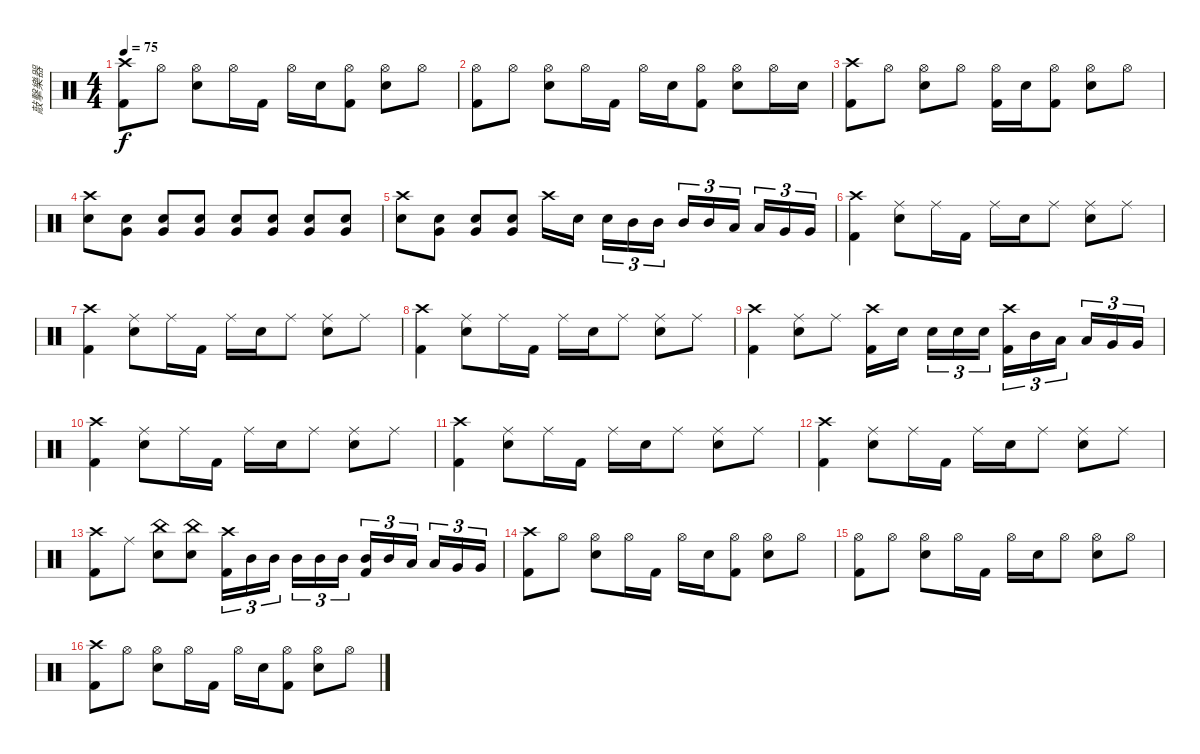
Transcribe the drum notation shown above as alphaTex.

\track ("敲擊樂器" "敲擊樂器") {instrument percussion}
\staff {score}
\articulation defaults
\ts (4 4)
\tempo 75
\clef neutral
\ks c
("Crash high (hit)" "Kick (hit) 2").8{dy f} "Hi-Hat (open)".8 ("Hi-Hat (open)" "Snare (hit) 2").8 "Hi-Hat (open)".16 "Kick (hit) 2".16 "Hi-Hat (open)".16 "Snare (hit) 2".16 ("Hi-Hat (open)" "Kick (hit) 2").8 ("Hi-Hat (open)" "Snare (hit) 2").8 "Hi-Hat (open)".8 |
("Hi-Hat (open)" "Kick (hit) 2").8 "Hi-Hat (open)".8 ("Hi-Hat (open)" "Snare (hit) 2").8 "Hi-Hat (open)".16 "Kick (hit) 2".16 "Hi-Hat (open)".16 "Snare (hit) 2".16 ("Hi-Hat (open)" "Kick (hit) 2").8 ("Hi-Hat (open)" "Snare (hit) 2").8 "Hi-Hat (open)".16 "Snare (hit) 2".16 |
("Crash high (hit)" "Kick (hit) 2").8 "Hi-Hat (open)".8 ("Hi-Hat (open)" "Snare (hit) 2").8 "Hi-Hat (open)".8 ("Hi-Hat (open)" "Kick (hit) 2").16 "Snare (hit) 2".16 ("Hi-Hat (open)" "Kick (hit) 2").8 ("Hi-Hat (open)" "Snare (hit) 2").8 "Hi-Hat (open)".8 |
("Crash high (hit)" "Snare (hit) 2").8 ("Snare (hit) 2" "Very Low Tom (hit)").8 ("Snare (hit) 2" "Very Low Tom (hit)").8 ("Snare (hit) 2" "Very Low Tom (hit)").8 ("Snare (hit) 2" "Very Low Tom (hit)").8 ("Snare (hit) 2" "Very Low Tom (hit)").8 ("Snare (hit) 2" "Very Low Tom (hit)").8 ("Snare (hit) 2" "Very Low Tom (hit)").8 |
("Crash high (hit)" "Snare (hit) 2").8 ("Snare (hit) 2" "Very Low Tom (hit)").8 ("Snare (hit) 2" "Very Low Tom (hit)").8 ("Snare (hit) 2" "Very Low Tom (hit)").8 "Crash high (hit)".16 "Snare (hit) 2".16 "Snare (hit) 2".16{tu (3 2)} "Mid Tom (hit)".16{tu (3 2)} "Mid Tom (hit)".16{tu (3 2)} "Mid Tom (hit)".16{tu (3 2)} "Mid Tom (hit)".16{tu (3 2)} "Low Tom (hit)".16{tu (3 2)} "Low Tom (hit)".16{tu (3 2)} "Very Low Tom (hit)".16{tu (3 2)} "Very Low Tom (hit)".16{tu (3 2)} |
("Crash high (hit)" "Kick (hit) 2").4 ("Ride (middle)" "Snare (hit) 2").8 "Ride (middle)".16 "Kick (hit) 2".16 "Ride (middle)".16 "Snare (hit) 2".16 "Ride (middle)".8 ("Ride (middle)" "Snare (hit) 2").8 "Ride (middle)".8 |
("Crash high (hit)" "Kick (hit) 2").4 ("Ride (middle)" "Snare (hit) 2").8 "Ride (middle)".16 "Kick (hit) 2".16 "Ride (middle)".16 "Snare (hit) 2".16 "Ride (middle)".8 ("Ride (middle)" "Snare (hit) 2").8 "Ride (middle)".8 |
("Crash high (hit)" "Kick (hit) 2").4 ("Ride (middle)" "Snare (hit) 2").8 "Ride (middle)".16 "Kick (hit) 2".16 "Ride (middle)".16 "Snare (hit) 2".16 "Ride (middle)".8 ("Ride (middle)" "Snare (hit) 2").8 "Ride (middle)".8 |
("Crash high (hit)" "Kick (hit) 2").4 ("Ride (middle)" "Snare (hit) 2").8 "Ride (middle)".8 ("Crash high (hit)" "Kick (hit) 2").16 "Snare (hit) 2".16 "Snare (hit) 2".16{tu (3 2)} "Snare (hit) 2".16{tu (3 2)} "Snare (hit) 2".16{tu (3 2)} ("Crash high (hit)" "Kick (hit) 2").16{tu (3 2)} "Mid Tom (hit)".16{tu (3 2)} "Low Tom (hit)".16{tu (3 2)} "Low Tom (hit)".16{tu (3 2)} "Very Low Tom (hit)".16{tu (3 2)} "Very Low Tom (hit)".16{tu (3 2)} |
("Crash high (hit)" "Kick (hit) 2").4 ("Ride (middle)" "Snare (hit) 2").8 "Ride (middle)".16 "Kick (hit) 2".16 "Ride (middle)".16 "Snare (hit) 2".16 "Ride (middle)".8 ("Ride (middle)" "Snare (hit) 2").8 "Ride (middle)".8 |
("Crash high (hit)" "Kick (hit) 2").4 ("Ride (middle)" "Snare (hit) 2").8 "Ride (middle)".16 "Kick (hit) 2".16 "Ride (middle)".16 "Snare (hit) 2".16 "Ride (middle)".8 ("Ride (middle)" "Snare (hit) 2").8 "Ride (middle)".8 |
("Crash high (hit)" "Kick (hit) 2").4 ("Ride (middle)" "Snare (hit) 2").8 "Ride (middle)".16 "Kick (hit) 2".16 "Ride (middle)".16 "Snare (hit) 2".16 "Ride (middle)".8 ("Ride (middle)" "Snare (hit) 2").8 "Ride (middle)".8 |
("Crash high (hit)" "Kick (hit) 2").8 "Ride (middle)".8 ("Snare (hit) 2" "China (hit)").8 ("Snare (hit) 2" "China (hit)").8 ("Crash high (hit)" "Kick (hit) 2").16{tu (3 2)} "Mid Tom (hit)".16{tu (3 2)} "Mid Tom (hit)".16{tu (3 2)} "Mid Tom (hit)".16{tu (3 2)} "Mid Tom (hit)".16{tu (3 2)} "Mid Tom (hit)".16{tu (3 2)} ("Mid Tom (hit)" "Kick (hit) 2").16{tu (3 2)} "Mid Tom (hit)".16{tu (3 2)} "Low Tom (hit)".16{tu (3 2)} "Low Tom (hit)".16{tu (3 2)} "Very Low Tom (hit)".16{tu (3 2)} "Very Low Tom (hit)".16{tu (3 2)} |
("Kick (hit) 2" "Crash high (hit)").8 "Hi-Hat (open)".8 ("Hi-Hat (open)" "Snare (hit) 2").8 "Hi-Hat (open)".16 "Kick (hit) 2".16 "Hi-Hat (open)".16 "Snare (hit) 2".16 ("Hi-Hat (open)" "Kick (hit) 2").8 ("Hi-Hat (open)" "Snare (hit) 2").8 "Hi-Hat (open)".8 |
("Kick (hit) 2" "Hi-Hat (open)").8 "Hi-Hat (open)".8 ("Hi-Hat (open)" "Snare (hit) 2").8 "Hi-Hat (open)".16 "Kick (hit) 2".16 "Hi-Hat (open)".16 "Snare (hit) 2".16 "Hi-Hat (open)".8 ("Hi-Hat (open)" "Snare (hit) 2").8 "Hi-Hat (open)".8 |
("Kick (hit) 2" "Crash high (hit)").8 "Hi-Hat (open)".8 ("Hi-Hat (open)" "Snare (hit) 2").8 "Hi-Hat (open)".16 "Kick (hit) 2".16 "Hi-Hat (open)".16 "Snare (hit) 2".16 ("Kick (hit) 2" "Hi-Hat (open)").8 ("Hi-Hat (open)" "Snare (hit) 2").8 "Hi-Hat (open)".8
